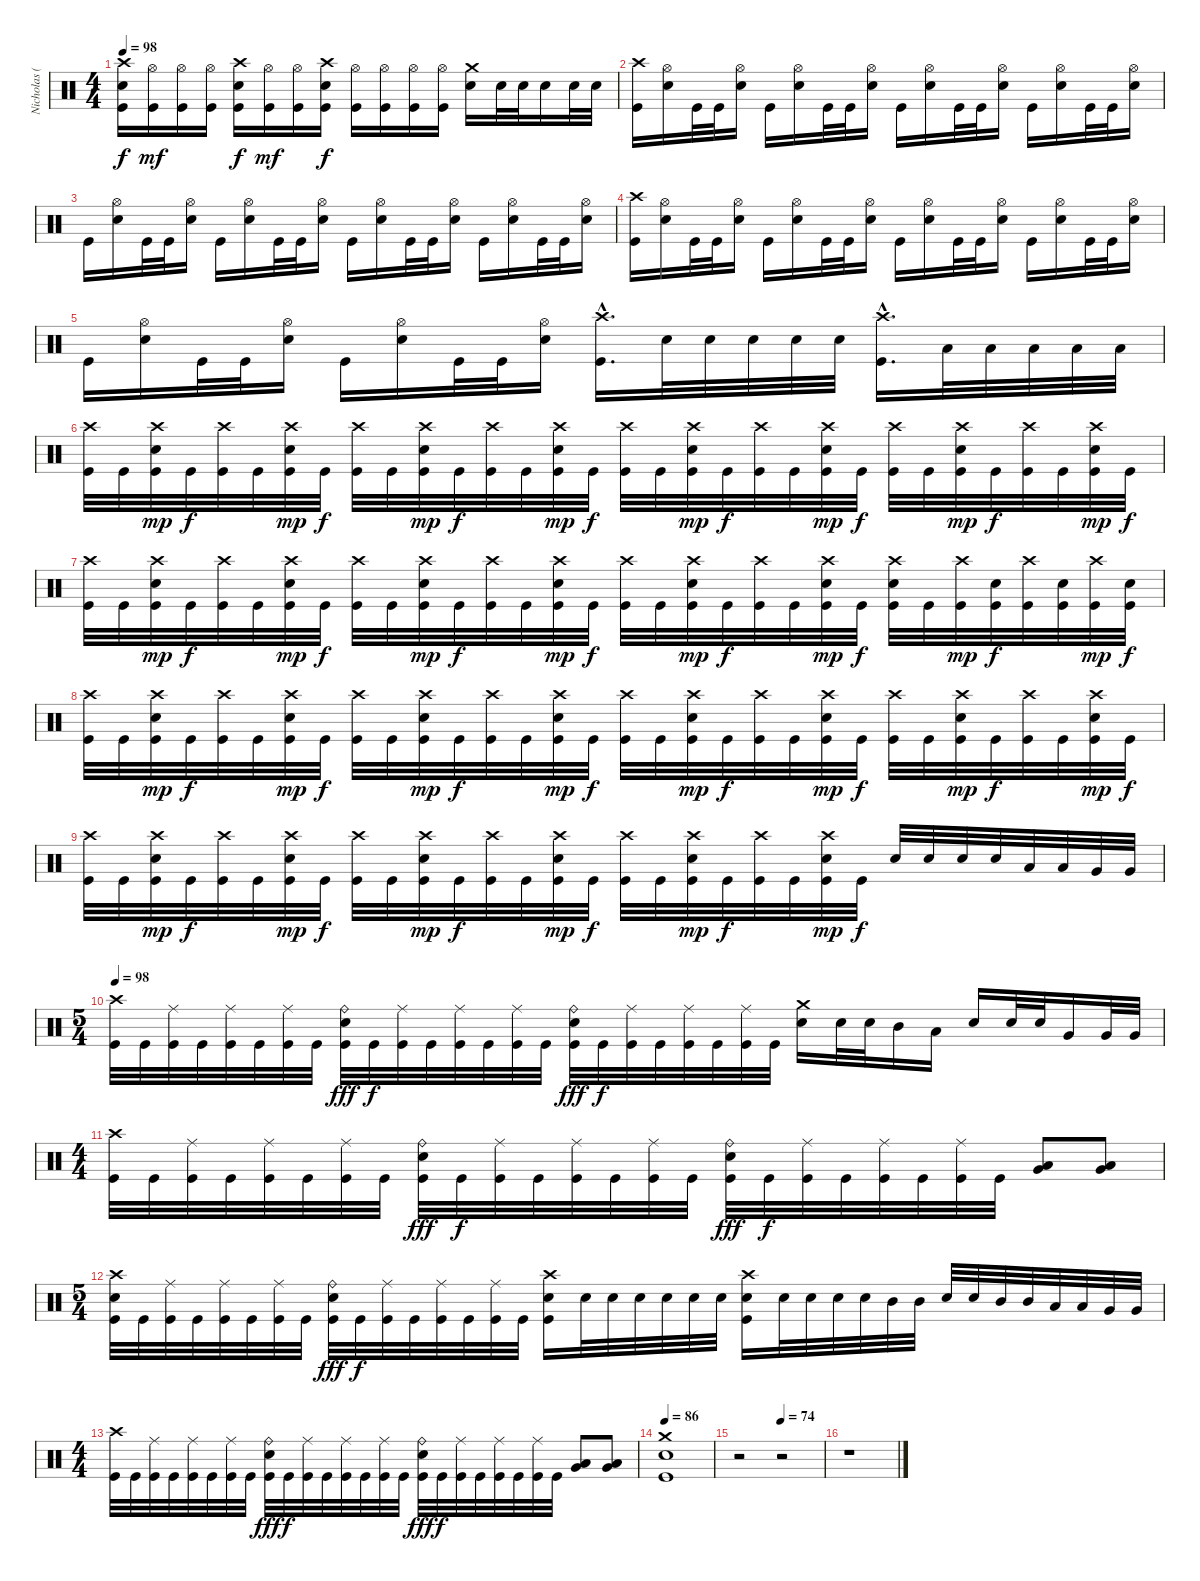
\track ("Nicholas (Drums)" "Nicholas (") {instrument percussion}
\staff {score}
\articulation defaults
\ts (4 4)
\tempo 98
\clef neutral
\ks c
("Crash high (hit)" "Electric Snare (hit)" "Kick (hit)").16{dy f} ("Hi-Hat (open)" "Kick (hit)").16{dy mf} ("Hi-Hat (open)" "Kick (hit)").16 ("Hi-Hat (open)" "Kick (hit)").16 ("Crash high (hit)" "Electric Snare (hit)" "Kick (hit)").16{dy f} ("Hi-Hat (open)" "Kick (hit)").16{dy mf} ("Hi-Hat (open)" "Kick (hit)").16 ("Crash high (hit)" "Electric Snare (hit)" "Kick (hit)").16{dy f} ("Hi-Hat (open)" "Kick (hit)").16 ("Hi-Hat (open)" "Kick (hit)").16 ("Hi-Hat (open)" "Kick (hit)").16 ("Hi-Hat (open)" "Kick (hit)").16 ("Crash medium (hit)" "Electric Snare (hit)").16 "Electric Snare (hit)".32 "Electric Snare (hit)".32 "Electric Snare (hit)".16 "Electric Snare (hit)".32 "Electric Snare (hit)".32 |
("Crash high (hit)" "Kick (hit)").16 ("Hi-Hat (open)" "Electric Snare (hit)").16 "Kick (hit)".32 "Kick (hit)".32 ("Hi-Hat (open)" "Electric Snare (hit)").16 "Kick (hit)".16 ("Hi-Hat (open)" "Electric Snare (hit)").16 "Kick (hit)".32 "Kick (hit)".32 ("Hi-Hat (open)" "Electric Snare (hit)").16 "Kick (hit)".16 ("Hi-Hat (open)" "Electric Snare (hit)").16 "Kick (hit)".32 "Kick (hit)".32 ("Hi-Hat (open)" "Electric Snare (hit)").16 "Kick (hit)".16 ("Hi-Hat (open)" "Electric Snare (hit)").16 "Kick (hit)".32 "Kick (hit)".32 ("Hi-Hat (open)" "Electric Snare (hit)").16 |
"Kick (hit)".16 ("Hi-Hat (open)" "Electric Snare (hit)").16 "Kick (hit)".32 "Kick (hit)".32 ("Hi-Hat (open)" "Electric Snare (hit)").16 "Kick (hit)".16 ("Hi-Hat (open)" "Electric Snare (hit)").16 "Kick (hit)".32 "Kick (hit)".32 ("Hi-Hat (open)" "Electric Snare (hit)").16 "Kick (hit)".16 ("Hi-Hat (open)" "Electric Snare (hit)").16 "Kick (hit)".32 "Kick (hit)".32 ("Hi-Hat (open)" "Electric Snare (hit)").16 "Kick (hit)".16 ("Hi-Hat (open)" "Electric Snare (hit)").16 "Kick (hit)".32 "Kick (hit)".32 ("Hi-Hat (open)" "Electric Snare (hit)").16 |
("Crash high (hit)" "Kick (hit)").16 ("Hi-Hat (open)" "Electric Snare (hit)").16 "Kick (hit)".32 "Kick (hit)".32 ("Hi-Hat (open)" "Electric Snare (hit)").16 "Kick (hit)".16 ("Hi-Hat (open)" "Electric Snare (hit)").16 "Kick (hit)".32 "Kick (hit)".32 ("Hi-Hat (open)" "Electric Snare (hit)").16 "Kick (hit)".16 ("Hi-Hat (open)" "Electric Snare (hit)").16 "Kick (hit)".32 "Kick (hit)".32 ("Hi-Hat (open)" "Electric Snare (hit)").16 "Kick (hit)".16 ("Hi-Hat (open)" "Electric Snare (hit)").16 "Kick (hit)".32 "Kick (hit)".32 ("Hi-Hat (open)" "Electric Snare (hit)").16 |
"Kick (hit)".16 ("Hi-Hat (open)" "Electric Snare (hit)").16 "Kick (hit)".32 "Kick (hit)".32 ("Hi-Hat (open)" "Electric Snare (hit)").16 "Kick (hit)".16 ("Hi-Hat (open)" "Electric Snare (hit)").16 "Kick (hit)".32 "Kick (hit)".32 ("Hi-Hat (open)" "Electric Snare (hit)").16 ("Crash high (hit)"{hac} "Kick (hit)"{hac}).16{d} "Electric Snare (hit)".32 "Electric Snare (hit)".32 "Electric Snare (hit)".32 "Electric Snare (hit)".32 "Electric Snare (hit)".32 ("Crash high (hit)"{hac} "Kick (hit)"{hac}).16{d} "Low Tom (hit)".32 "Low Tom (hit)".32 "Low Tom (hit)".32 "Low Tom (hit)".32 "Low Tom (hit)".32 |
("Crash high (hit)" "Kick (hit)").32 "Kick (hit)".32 ("Crash high (hit)" "Electric Snare (hit)" "Kick (hit)").32{dy mp} "Kick (hit)".32{dy f} ("Crash high (hit)" "Kick (hit)").32 "Kick (hit)".32 ("Crash high (hit)" "Electric Snare (hit)" "Kick (hit)").32{dy mp} "Kick (hit)".32{dy f} ("Crash high (hit)" "Kick (hit)").32 "Kick (hit)".32 ("Crash high (hit)" "Electric Snare (hit)" "Kick (hit)").32{dy mp} "Kick (hit)".32{dy f} ("Crash high (hit)" "Kick (hit)").32 "Kick (hit)".32 ("Crash high (hit)" "Electric Snare (hit)" "Kick (hit)").32{dy mp} "Kick (hit)".32{dy f} ("Crash high (hit)" "Kick (hit)").32 "Kick (hit)".32 ("Crash high (hit)" "Electric Snare (hit)" "Kick (hit)").32{dy mp} "Kick (hit)".32{dy f} ("Crash high (hit)" "Kick (hit)").32 "Kick (hit)".32 ("Crash high (hit)" "Electric Snare (hit)" "Kick (hit)").32{dy mp} "Kick (hit)".32{dy f} ("Crash high (hit)" "Kick (hit)").32 "Kick (hit)".32 ("Crash high (hit)" "Electric Snare (hit)" "Kick (hit)").32{dy mp} "Kick (hit)".32{dy f} ("Crash high (hit)" "Kick (hit)").32 "Kick (hit)".32 ("Crash high (hit)" "Electric Snare (hit)" "Kick (hit)").32{dy mp} "Kick (hit)".32{dy f} |
("Crash high (hit)" "Kick (hit)").32 "Kick (hit)".32 ("Crash high (hit)" "Electric Snare (hit)" "Kick (hit)").32{dy mp} "Kick (hit)".32{dy f} ("Crash high (hit)" "Kick (hit)").32 "Kick (hit)".32 ("Crash high (hit)" "Electric Snare (hit)" "Kick (hit)").32{dy mp} "Kick (hit)".32{dy f} ("Crash high (hit)" "Kick (hit)").32 "Kick (hit)".32 ("Crash high (hit)" "Electric Snare (hit)" "Kick (hit)").32{dy mp} "Kick (hit)".32{dy f} ("Crash high (hit)" "Kick (hit)").32 "Kick (hit)".32 ("Crash high (hit)" "Electric Snare (hit)" "Kick (hit)").32{dy mp} "Kick (hit)".32{dy f} ("Crash high (hit)" "Kick (hit)").32 "Kick (hit)".32 ("Crash high (hit)" "Electric Snare (hit)" "Kick (hit)").32{dy mp} "Kick (hit)".32{dy f} ("Crash high (hit)" "Kick (hit)").32 "Kick (hit)".32 ("Crash high (hit)" "Electric Snare (hit)" "Kick (hit)").32{dy mp} "Kick (hit)".32{dy f} ("Crash high (hit)" "Electric Snare (hit)" "Kick (hit)").32 "Kick (hit)".32 ("Crash high (hit)" "Kick (hit)").32{dy mp} ("Electric Snare (hit)" "Kick (hit)").32{dy f} ("Crash high (hit)" "Kick (hit)").32 ("Electric Snare (hit)" "Kick (hit)").32 ("Crash high (hit)" "Kick (hit)").32{dy mp} ("Electric Snare (hit)" "Kick (hit)").32{dy f} |
("Crash high (hit)" "Kick (hit)").32 "Kick (hit)".32 ("Crash high (hit)" "Electric Snare (hit)" "Kick (hit)").32{dy mp} "Kick (hit)".32{dy f} ("Crash high (hit)" "Kick (hit)").32 "Kick (hit)".32 ("Crash high (hit)" "Electric Snare (hit)" "Kick (hit)").32{dy mp} "Kick (hit)".32{dy f} ("Crash high (hit)" "Kick (hit)").32 "Kick (hit)".32 ("Crash high (hit)" "Electric Snare (hit)" "Kick (hit)").32{dy mp} "Kick (hit)".32{dy f} ("Crash high (hit)" "Kick (hit)").32 "Kick (hit)".32 ("Crash high (hit)" "Electric Snare (hit)" "Kick (hit)").32{dy mp} "Kick (hit)".32{dy f} ("Crash high (hit)" "Kick (hit)").32 "Kick (hit)".32 ("Crash high (hit)" "Electric Snare (hit)" "Kick (hit)").32{dy mp} "Kick (hit)".32{dy f} ("Crash high (hit)" "Kick (hit)").32 "Kick (hit)".32 ("Crash high (hit)" "Electric Snare (hit)" "Kick (hit)").32{dy mp} "Kick (hit)".32{dy f} ("Crash high (hit)" "Kick (hit)").32 "Kick (hit)".32 ("Crash high (hit)" "Electric Snare (hit)" "Kick (hit)").32{dy mp} "Kick (hit)".32{dy f} ("Crash high (hit)" "Kick (hit)").32 "Kick (hit)".32 ("Crash high (hit)" "Electric Snare (hit)" "Kick (hit)").32{dy mp} "Kick (hit)".32{dy f} |
("Crash high (hit)" "Kick (hit)").32 "Kick (hit)".32 ("Crash high (hit)" "Electric Snare (hit)" "Kick (hit)").32{dy mp} "Kick (hit)".32{dy f} ("Crash high (hit)" "Kick (hit)").32 "Kick (hit)".32 ("Crash high (hit)" "Electric Snare (hit)" "Kick (hit)").32{dy mp} "Kick (hit)".32{dy f} ("Crash high (hit)" "Kick (hit)").32 "Kick (hit)".32 ("Crash high (hit)" "Electric Snare (hit)" "Kick (hit)").32{dy mp} "Kick (hit)".32{dy f} ("Crash high (hit)" "Kick (hit)").32 "Kick (hit)".32 ("Crash high (hit)" "Electric Snare (hit)" "Kick (hit)").32{dy mp} "Kick (hit)".32{dy f} ("Crash high (hit)" "Kick (hit)").32 "Kick (hit)".32 ("Crash high (hit)" "Electric Snare (hit)" "Kick (hit)").32{dy mp} "Kick (hit)".32{dy f} ("Crash high (hit)" "Kick (hit)").32 "Kick (hit)".32 ("Crash high (hit)" "Electric Snare (hit)" "Kick (hit)").32{dy mp} "Kick (hit)".32{dy f} "Electric Snare (hit)".32 "Electric Snare (hit)".32 "Electric Snare (hit)".32 "Electric Snare (hit)".32 "Low Tom (hit)".32 "Low Tom (hit)".32 "Very Low Tom (hit)".32 "Very Low Tom (hit)".32 |
\ts (5 4)
\tempo 98
("Crash high (hit)" "Kick (hit)").32 "Kick (hit)".32 ("Ride (middle)" "Kick (hit)").32 "Kick (hit)".32 ("Ride (middle)" "Kick (hit)").32 "Kick (hit)".32 ("Ride (middle)" "Kick (hit)").32 "Kick (hit)".32 ("Ride (bell)" "Electric Snare (hit)" "Kick (hit)").32{dy fff} "Kick (hit)".32{dy f} ("Ride (middle)" "Kick (hit)").32 "Kick (hit)".32 ("Ride (middle)" "Kick (hit)").32 "Kick (hit)".32 ("Ride (middle)" "Kick (hit)").32 "Kick (hit)".32 ("Ride (bell)" "Electric Snare (hit)" "Kick (hit)").32{dy fff} "Kick (hit)".32{dy f} ("Ride (middle)" "Kick (hit)").32 "Kick (hit)".32 ("Ride (middle)" "Kick (hit)").32 "Kick (hit)".32 ("Ride (middle)" "Kick (hit)").32 "Kick (hit)".32 ("Crash medium (hit)" "Electric Snare (hit)").16 "Electric Snare (hit)".32 "Electric Snare (hit)".32 "Mid Tom (hit)".16 "Low Tom (hit)".16 "Electric Snare (hit)".16 "Electric Snare (hit)".32 "Electric Snare (hit)".32 "Very Low Tom (hit)".16 "Very Low Tom (hit)".32 "Very Low Tom (hit)".32 |
\ts (4 4)
("Crash high (hit)" "Kick (hit)").32 "Kick (hit)".32 ("Ride (middle)" "Kick (hit)").32 "Kick (hit)".32 ("Ride (middle)" "Kick (hit)").32 "Kick (hit)".32 ("Ride (middle)" "Kick (hit)").32 "Kick (hit)".32 ("Ride (bell)" "Electric Snare (hit)" "Kick (hit)").32{dy fff} "Kick (hit)".32{dy f} ("Ride (middle)" "Kick (hit)").32 "Kick (hit)".32 ("Ride (middle)" "Kick (hit)").32 "Kick (hit)".32 ("Ride (middle)" "Kick (hit)").32 "Kick (hit)".32 ("Ride (bell)" "Electric Snare (hit)" "Kick (hit)").32{dy fff} "Kick (hit)".32{dy f} ("Ride (middle)" "Kick (hit)").32 "Kick (hit)".32 ("Ride (middle)" "Kick (hit)").32 "Kick (hit)".32 ("Ride (middle)" "Kick (hit)").32 "Kick (hit)".32 ("Low Tom (hit)" "Very Low Tom (hit)").8{bu 60} ("Low Tom (hit)" "Very Low Tom (hit)").8{bu 60} |
\ts (5 4)
("Crash high (hit)" "Electric Snare (hit)" "Kick (hit)").32 "Kick (hit)".32 ("Ride (middle)" "Kick (hit)").32 "Kick (hit)".32 ("Ride (middle)" "Kick (hit)").32 "Kick (hit)".32 ("Ride (middle)" "Kick (hit)").32 "Kick (hit)".32 ("Ride (bell)" "Electric Snare (hit)" "Kick (hit)").32{dy fff} "Kick (hit)".32{dy f} ("Ride (middle)" "Kick (hit)").32 "Kick (hit)".32 ("Ride (middle)" "Kick (hit)").32 "Kick (hit)".32 ("Ride (middle)" "Kick (hit)").32 "Kick (hit)".32 ("Crash high (hit)" "Electric Snare (hit)" "Kick (hit)").16 "Electric Snare (hit)".32 "Electric Snare (hit)".32 "Electric Snare (hit)".32 "Electric Snare (hit)".32 "Electric Snare (hit)".32 "Electric Snare (hit)".32 ("Crash high (hit)" "Electric Snare (hit)" "Kick (hit)").16 "Electric Snare (hit)".32 "Electric Snare (hit)".32 "Electric Snare (hit)".32 "Electric Snare (hit)".32 "Mid Tom (hit)".32 "Mid Tom (hit)".32 "Electric Snare (hit)".32 "Electric Snare (hit)".32 "Mid Tom (hit)".32 "Mid Tom (hit)".32 "Low Tom (hit)".32 "Low Tom (hit)".32 "Very Low Tom (hit)".32 "Very Low Tom (hit)".32 |
\ts (4 4)
("Crash high (hit)" "Kick (hit)").32 "Kick (hit)".32 ("Ride (middle)" "Kick (hit)").32 "Kick (hit)".32 ("Ride (middle)" "Kick (hit)").32 "Kick (hit)".32 ("Ride (middle)" "Kick (hit)").32 "Kick (hit)".32 ("Ride (bell)" "Electric Snare (hit)" "Kick (hit)").32{dy fff} "Kick (hit)".32{dy f} ("Ride (middle)" "Kick (hit)").32 "Kick (hit)".32 ("Ride (middle)" "Kick (hit)").32 "Kick (hit)".32 ("Ride (middle)" "Kick (hit)").32 "Kick (hit)".32 ("Ride (bell)" "Electric Snare (hit)" "Kick (hit)").32{dy fff} "Kick (hit)".32{dy f} ("Ride (middle)" "Kick (hit)").32 "Kick (hit)".32 ("Ride (middle)" "Kick (hit)").32 "Kick (hit)".32 ("Ride (middle)" "Kick (hit)").32 "Kick (hit)".32 ("Low Tom (hit)" "Very Low Tom (hit)").8{bu 60} ("Low Tom (hit)" "Very Low Tom (hit)").8{bu 60} |
\tempo 86
("Crash medium (hit)" "Electric Snare (hit)" "Kick (hit)").1 |
\tempo (74 0.5)
r.2 r.2 |
r.1
